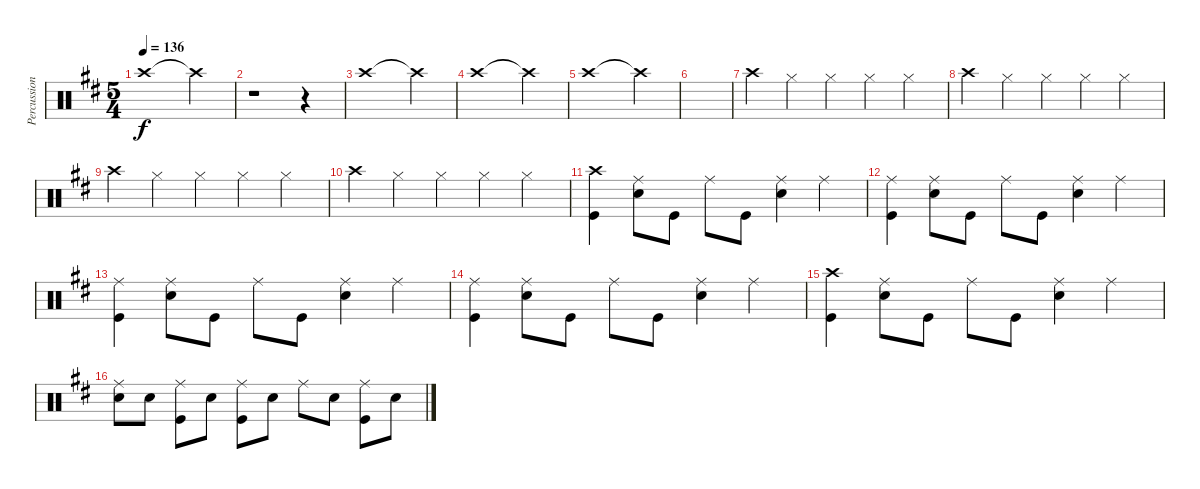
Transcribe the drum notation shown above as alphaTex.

\track ("Percussion" "Percussion") {instrument percussion}
\staff {score}
\articulation defaults
\ts (5 4)
\tempo 136
\clef neutral
\ks d "Crash high (hit)".1{dy f} "Crash high (hit)"{t}.4
|
r.1 r.4 |
"Crash high (hit)".1 "Crash high (hit)"{t}.4 |
"Crash high (hit)".1 "Crash high (hit)"{t}.4 |
"Crash high (hit)".1 "Crash high (hit)"{t}.4 |
|
"Crash high (hit)".4 "Hi-Hat (closed)".4 "Hi-Hat (closed)".4 "Hi-Hat (closed)".4 "Hi-Hat (closed)".4 |
"Crash high (hit)".4 "Hi-Hat (closed)".4 "Hi-Hat (closed)".4 "Hi-Hat (closed)".4 "Hi-Hat (closed)".4 |
"Crash high (hit)".4 "Hi-Hat (closed)".4 "Hi-Hat (closed)".4 "Hi-Hat (closed)".4 "Hi-Hat (closed)".4 |
"Crash high (hit)".4 "Hi-Hat (closed)".4 "Hi-Hat (closed)".4 "Hi-Hat (closed)".4 "Hi-Hat (closed)".4 |
("Crash high (hit)" "Kick (hit)").4 ("Ride (middle)" "Snare (hit) 2").8 "Kick (hit)".8 "Ride (middle)".8 "Kick (hit)".8 ("Snare (hit) 2" "Ride (middle)").4 "Ride (middle)".4 |
("Ride (middle)" "Kick (hit)").4 ("Ride (middle)" "Snare (hit) 2").8 "Kick (hit)".8 "Ride (middle)".8 "Kick (hit)".8 ("Snare (hit) 2" "Ride (middle)").4 "Ride (middle)".4 |
("Ride (middle)" "Kick (hit)").4 ("Ride (middle)" "Snare (hit) 2").8 "Kick (hit)".8 "Ride (middle)".8 "Kick (hit)".8 ("Snare (hit) 2" "Ride (middle)").4 "Ride (middle)".4 |
("Ride (middle)" "Kick (hit)").4 ("Ride (middle)" "Snare (hit) 2").8 "Kick (hit)".8 "Ride (middle)".8 "Kick (hit)".8 ("Snare (hit) 2" "Ride (middle)").4 "Ride (middle)".4 |
("Crash high (hit)" "Kick (hit)").4 ("Ride (middle)" "Snare (hit) 2").8 "Kick (hit)".8 "Ride (middle)".8 "Kick (hit)".8 ("Snare (hit) 2" "Ride (middle)").4 "Ride (middle)".4 |
("Snare (hit) 2" "Ride (middle)").8 "Snare (hit) 2".8 ("Ride (middle)" "Kick (hit)").8 "Snare (hit) 2".8 ("Ride (middle)" "Kick (hit)").8 "Snare (hit) 2".8 "Ride (middle)".8 "Snare (hit) 2".8 ("Ride (middle)" "Kick (hit)").8 "Snare (hit) 2".8
